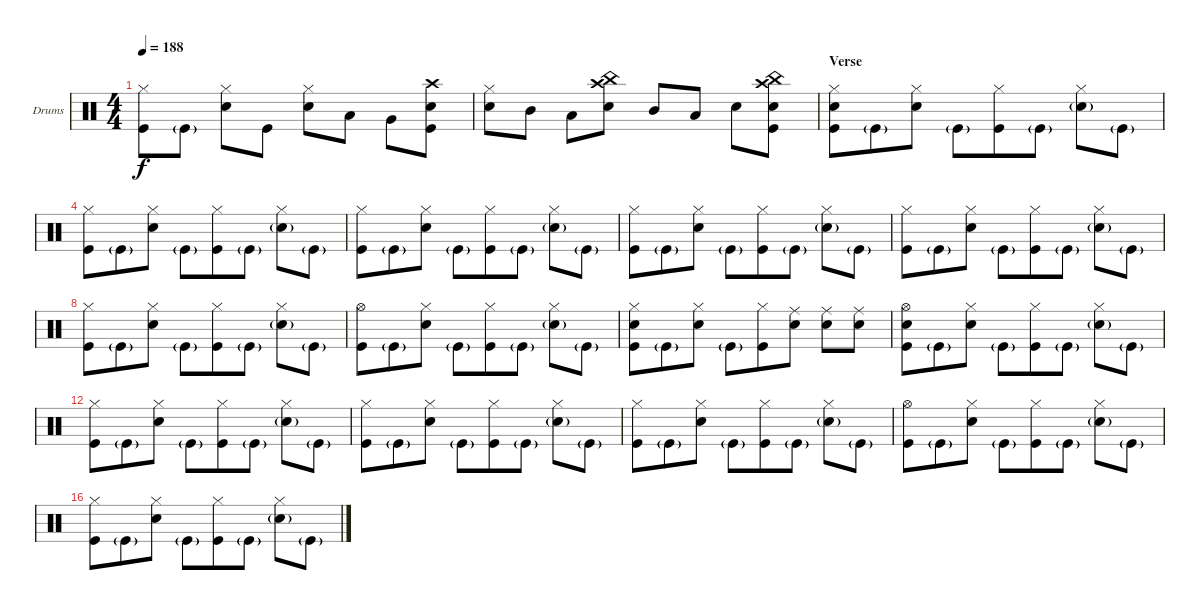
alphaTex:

\bracketExtendMode nobrackets
\firstSystemTrackNameOrientation horizontal
\otherSystemsTrackNameOrientation horizontal
\defaultBarNumberDisplay FirstOfSystem
\track ("Drumkit" "Drums") {instrument percussion}
\staff {score}
\articulation defaults
\ts (4 4)
\tempo 188
\clef neutral
\ks c
("Kick (hit)" "Hi-Hat (closed)").8{dy f} "Kick (hit)"{g}.8 ("Hi-Hat (closed)" "Snare (hit) 2").8 "Kick (hit)".8 ("Snare (hit) 2" "Hi-Hat (closed)").8 "Low Tom (hit)".8 "Very Low Tom (hit)".8 ("Kick (hit)" "Snare (hit) 2" "Crash high (hit)").8 |
("Snare (hit) 2" "Hi-Hat (closed)").8 "Mid Tom (hit)".8 "Low Tom (hit)".8 ("Snare (hit) 2" "Crash high (hit)" "China (hit)").8 "Mid Tom (hit)".8 "Low Tom (hit)".8 "Snare (hit) 2".8 ("Kick (hit)" "Crash high (hit)" "China (hit)" "Snare (hit) 2").8 |
\section ("" "Verse")
("Kick (hit)" "Hi-Hat (closed)" "Snare (hit) 2").8{beam merge} "Kick (hit)"{g}.8{beam merge} ("Snare (hit) 2" "Hi-Hat (closed)").8{beam split} "Kick (hit)"{g}.8{beam merge} ("Kick (hit)" "Hi-Hat (closed)").8 "Kick (hit)"{g}.8 ("Snare (hit) 2"{g} "Hi-Hat (closed)").8 "Kick (hit)"{g}.8 |
("Kick (hit)" "Hi-Hat (closed)").8{beam merge} "Kick (hit)"{g}.8{beam merge} ("Snare (hit) 2" "Hi-Hat (closed)").8{beam split} "Kick (hit)"{g}.8{beam merge} ("Kick (hit)" "Hi-Hat (closed)").8 "Kick (hit)"{g}.8 ("Snare (hit) 2"{g} "Hi-Hat (closed)").8 "Kick (hit)"{g}.8 |
("Kick (hit)" "Hi-Hat (closed)").8{beam merge} "Kick (hit)"{g}.8{beam merge} ("Snare (hit) 2" "Hi-Hat (closed)").8{beam split} "Kick (hit)"{g}.8{beam merge} ("Kick (hit)" "Hi-Hat (closed)").8 "Kick (hit)"{g}.8 ("Snare (hit) 2"{g} "Hi-Hat (closed)").8 "Kick (hit)"{g}.8 |
("Kick (hit)" "Hi-Hat (closed)").8{beam merge} "Kick (hit)"{g}.8{beam merge} ("Snare (hit) 2" "Hi-Hat (closed)").8{beam split} "Kick (hit)"{g}.8{beam merge} ("Kick (hit)" "Hi-Hat (closed)").8 "Kick (hit)"{g}.8 ("Snare (hit) 2"{g} "Hi-Hat (closed)").8 "Kick (hit)"{g}.8 |
("Hi-Hat (closed)" "Kick (hit)").8{beam merge} "Kick (hit)"{g}.8{beam merge} ("Snare (hit) 2" "Hi-Hat (closed)").8{beam split} "Kick (hit)"{g}.8{beam merge} ("Kick (hit)" "Hi-Hat (closed)").8 "Kick (hit)"{g}.8 ("Snare (hit) 2"{g} "Hi-Hat (closed)").8 "Kick (hit)"{g}.8 |
("Kick (hit)" "Hi-Hat (closed)").8{beam merge} "Kick (hit)"{g}.8{beam merge} ("Snare (hit) 2" "Hi-Hat (closed)").8{beam split} "Kick (hit)"{g}.8{beam merge} ("Kick (hit)" "Hi-Hat (closed)").8 "Kick (hit)"{g}.8 ("Snare (hit) 2"{g} "Hi-Hat (closed)").8 "Kick (hit)"{g}.8 |
("Hi-Hat (open)" "Kick (hit)").8{beam merge} "Kick (hit)"{g}.8{beam merge} ("Snare (hit) 2" "Hi-Hat (closed)").8{beam split} "Kick (hit)"{g}.8{beam merge} ("Kick (hit)" "Hi-Hat (closed)").8 "Kick (hit)"{g}.8 ("Snare (hit) 2"{g} "Hi-Hat (closed)").8 "Kick (hit)"{g}.8 |
("Snare (hit) 2" "Kick (hit)" "Hi-Hat (closed)").8{beam merge} "Kick (hit)"{g}.8{beam merge} ("Snare (hit) 2" "Hi-Hat (closed)").8{beam split} "Kick (hit)"{g}.8{beam merge} ("Kick (hit)" "Hi-Hat (closed)").8 ("Snare (hit) 2" "Ride (middle)").8 ("Snare (hit) 2" "Ride (middle)").8 ("Snare (hit) 2" "Ride (middle)").8 |
("Kick (hit)" "Hi-Hat (open)" "Snare (hit) 2").8{beam merge} "Kick (hit)"{g}.8{beam merge} ("Snare (hit) 2" "Hi-Hat (closed)").8{beam split} "Kick (hit)"{g}.8{beam merge} ("Kick (hit)" "Hi-Hat (closed)").8 "Kick (hit)"{g}.8 ("Snare (hit) 2"{g} "Hi-Hat (closed)").8 "Kick (hit)"{g}.8 |
("Kick (hit)" "Hi-Hat (closed)").8{beam merge} "Kick (hit)"{g}.8{beam merge} ("Snare (hit) 2" "Hi-Hat (closed)").8{beam split} "Kick (hit)"{g}.8{beam merge} ("Kick (hit)" "Hi-Hat (closed)").8 "Kick (hit)"{g}.8 ("Snare (hit) 2"{g} "Hi-Hat (closed)").8 "Kick (hit)"{g}.8 |
("Kick (hit)" "Hi-Hat (closed)").8{beam merge} "Kick (hit)"{g}.8{beam merge} ("Snare (hit) 2" "Hi-Hat (closed)").8{beam split} "Kick (hit)"{g}.8{beam merge} ("Kick (hit)" "Hi-Hat (closed)").8 "Kick (hit)"{g}.8 ("Snare (hit) 2"{g} "Hi-Hat (closed)").8 "Kick (hit)"{g}.8 |
("Kick (hit)" "Hi-Hat (closed)").8{beam merge} "Kick (hit)"{g}.8{beam merge} ("Snare (hit) 2" "Hi-Hat (closed)").8{beam split} "Kick (hit)"{g}.8{beam merge} ("Kick (hit)" "Hi-Hat (closed)").8 "Kick (hit)"{g}.8 ("Snare (hit) 2"{g} "Hi-Hat (closed)").8 "Kick (hit)"{g}.8 |
("Hi-Hat (open)" "Kick (hit)").8{beam merge} "Kick (hit)"{g}.8{beam merge} ("Snare (hit) 2" "Hi-Hat (closed)").8{beam split} "Kick (hit)"{g}.8{beam merge} ("Kick (hit)" "Hi-Hat (closed)").8 "Kick (hit)"{g}.8 ("Snare (hit) 2"{g} "Hi-Hat (closed)").8 "Kick (hit)"{g}.8 |
("Kick (hit)" "Hi-Hat (closed)").8{beam merge} "Kick (hit)"{g}.8{beam merge} ("Snare (hit) 2" "Hi-Hat (closed)").8{beam split} "Kick (hit)"{g}.8{beam merge} ("Kick (hit)" "Hi-Hat (closed)").8 "Kick (hit)"{g}.8 ("Snare (hit) 2"{g} "Hi-Hat (closed)").8 "Kick (hit)"{g}.8
